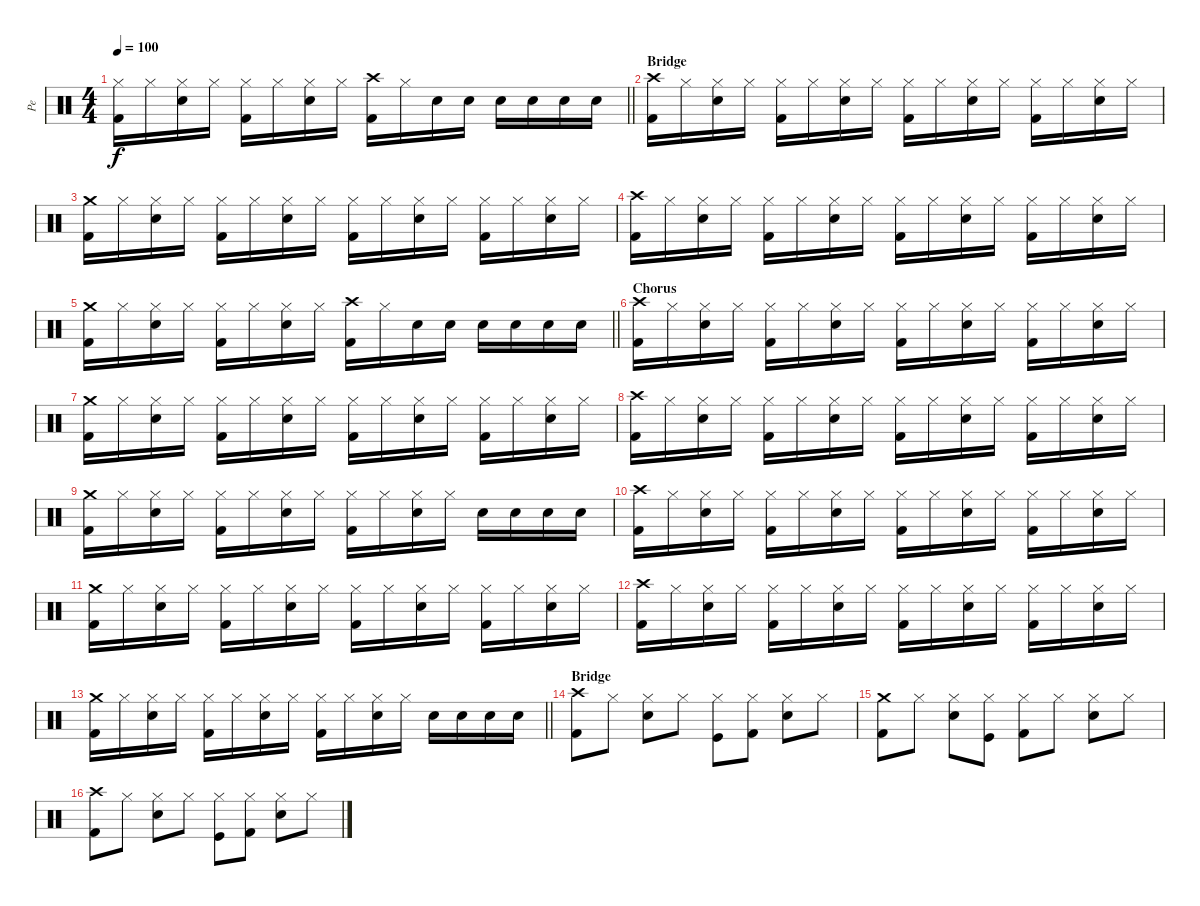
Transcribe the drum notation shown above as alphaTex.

\track ("Pe" "Pe") {instrument percussion}
\staff {score}
\articulation defaults
\ts (4 4)
\tempo 100
\clef neutral
\barLineRight lightlight
\ks c
("Kick (hit) 2" "Hi-Hat (closed)").16{dy f} "Hi-Hat (closed)".16 ("Electric Snare (hit)" "Hi-Hat (closed)").16 "Hi-Hat (closed)".16 ("Kick (hit) 2" "Hi-Hat (closed)").16 "Hi-Hat (closed)".16 ("Electric Snare (hit)" "Hi-Hat (closed)").16 "Hi-Hat (closed)".16 ("Kick (hit) 2" "Crash high (hit)").16 "Hi-Hat (closed)".16 "Electric Snare (hit)".16 "Electric Snare (hit)".16 "Electric Snare (hit)".16 "Electric Snare (hit)".16 "Electric Snare (hit)".16 "Electric Snare (hit)".16 |
\section ("" "Bridge")
("Kick (hit) 2" "Crash high (hit)").16 "Hi-Hat (closed)".16 ("Electric Snare (hit)" "Hi-Hat (closed)").16 "Hi-Hat (closed)".16 ("Kick (hit) 2" "Hi-Hat (closed)").16 "Hi-Hat (closed)".16 ("Electric Snare (hit)" "Hi-Hat (closed)").16 "Hi-Hat (closed)".16 ("Kick (hit) 2" "Hi-Hat (closed)").16 "Hi-Hat (closed)".16 ("Electric Snare (hit)" "Hi-Hat (closed)").16 "Hi-Hat (closed)".16 ("Kick (hit) 2" "Hi-Hat (closed)").16 "Hi-Hat (closed)".16 ("Electric Snare (hit)" "Hi-Hat (closed)").16 "Hi-Hat (closed)".16 |
("Kick (hit) 2" "Crash medium (hit)").16 "Hi-Hat (closed)".16 ("Electric Snare (hit)" "Hi-Hat (closed)").16 "Hi-Hat (closed)".16 ("Kick (hit) 2" "Hi-Hat (closed)").16 "Hi-Hat (closed)".16 ("Electric Snare (hit)" "Hi-Hat (closed)").16 "Hi-Hat (closed)".16 ("Kick (hit) 2" "Hi-Hat (closed)").16 "Hi-Hat (closed)".16 ("Electric Snare (hit)" "Hi-Hat (closed)").16 "Hi-Hat (closed)".16 ("Kick (hit) 2" "Hi-Hat (closed)").16 "Hi-Hat (closed)".16 ("Electric Snare (hit)" "Hi-Hat (closed)").16 "Hi-Hat (closed)".16 |
("Kick (hit) 2" "Crash high (hit)").16 "Hi-Hat (closed)".16 ("Electric Snare (hit)" "Hi-Hat (closed)").16 "Hi-Hat (closed)".16 ("Kick (hit) 2" "Hi-Hat (closed)").16 "Hi-Hat (closed)".16 ("Electric Snare (hit)" "Hi-Hat (closed)").16 "Hi-Hat (closed)".16 ("Kick (hit) 2" "Hi-Hat (closed)").16 "Hi-Hat (closed)".16 ("Electric Snare (hit)" "Hi-Hat (closed)").16 "Hi-Hat (closed)".16 ("Kick (hit) 2" "Hi-Hat (closed)").16 "Hi-Hat (closed)".16 ("Electric Snare (hit)" "Hi-Hat (closed)").16 "Hi-Hat (closed)".16 |
\barLineRight lightlight
("Kick (hit) 2" "Crash medium (hit)").16 "Hi-Hat (closed)".16 ("Electric Snare (hit)" "Hi-Hat (closed)").16 "Hi-Hat (closed)".16 ("Kick (hit) 2" "Hi-Hat (closed)").16 "Hi-Hat (closed)".16 ("Electric Snare (hit)" "Hi-Hat (closed)").16 "Hi-Hat (closed)".16 ("Kick (hit) 2" "Crash high (hit)").16 "Hi-Hat (closed)".16 "Electric Snare (hit)".16 "Electric Snare (hit)".16 "Electric Snare (hit)".16 "Electric Snare (hit)".16 "Electric Snare (hit)".16 "Electric Snare (hit)".16 |
\section ("" "Chorus")
("Kick (hit) 2" "Crash high (hit)").16 "Hi-Hat (closed)".16 ("Electric Snare (hit)" "Hi-Hat (closed)").16 "Hi-Hat (closed)".16 ("Kick (hit) 2" "Hi-Hat (closed)").16 "Hi-Hat (closed)".16 ("Electric Snare (hit)" "Hi-Hat (closed)").16 "Hi-Hat (closed)".16 ("Kick (hit) 2" "Hi-Hat (closed)").16 "Hi-Hat (closed)".16 ("Electric Snare (hit)" "Hi-Hat (closed)").16 "Hi-Hat (closed)".16 ("Kick (hit) 2" "Hi-Hat (closed)").16 "Hi-Hat (closed)".16 ("Electric Snare (hit)" "Hi-Hat (closed)").16 "Hi-Hat (closed)".16 |
("Kick (hit) 2" "Crash medium (hit)").16 "Hi-Hat (closed)".16 ("Electric Snare (hit)" "Hi-Hat (closed)").16 "Hi-Hat (closed)".16 ("Kick (hit) 2" "Hi-Hat (closed)").16 "Hi-Hat (closed)".16 ("Electric Snare (hit)" "Hi-Hat (closed)").16 "Hi-Hat (closed)".16 ("Kick (hit) 2" "Hi-Hat (closed)").16 "Hi-Hat (closed)".16 ("Electric Snare (hit)" "Hi-Hat (closed)").16 "Hi-Hat (closed)".16 ("Kick (hit) 2" "Hi-Hat (closed)").16 "Hi-Hat (closed)".16 ("Electric Snare (hit)" "Hi-Hat (closed)").16 "Hi-Hat (closed)".16 |
("Kick (hit) 2" "Crash high (hit)").16 "Hi-Hat (closed)".16 ("Electric Snare (hit)" "Hi-Hat (closed)").16 "Hi-Hat (closed)".16 ("Kick (hit) 2" "Hi-Hat (closed)").16 "Hi-Hat (closed)".16 ("Electric Snare (hit)" "Hi-Hat (closed)").16 "Hi-Hat (closed)".16 ("Kick (hit) 2" "Hi-Hat (closed)").16 "Hi-Hat (closed)".16 ("Electric Snare (hit)" "Hi-Hat (closed)").16 "Hi-Hat (closed)".16 ("Kick (hit) 2" "Hi-Hat (closed)").16 "Hi-Hat (closed)".16 ("Electric Snare (hit)" "Hi-Hat (closed)").16 "Hi-Hat (closed)".16 |
("Kick (hit) 2" "Crash medium (hit)").16 "Hi-Hat (closed)".16 ("Electric Snare (hit)" "Hi-Hat (closed)").16 "Hi-Hat (closed)".16 ("Kick (hit) 2" "Hi-Hat (closed)").16 "Hi-Hat (closed)".16 ("Electric Snare (hit)" "Hi-Hat (closed)").16 "Hi-Hat (closed)".16 ("Kick (hit) 2" "Hi-Hat (closed)").16 "Hi-Hat (closed)".16 ("Electric Snare (hit)" "Hi-Hat (closed)").16 "Hi-Hat (closed)".16 "Electric Snare (hit)".16 "Electric Snare (hit)".16 "Electric Snare (hit)".16 "Electric Snare (hit)".16 |
("Kick (hit) 2" "Crash high (hit)").16 "Hi-Hat (closed)".16 ("Electric Snare (hit)" "Hi-Hat (closed)").16 "Hi-Hat (closed)".16 ("Kick (hit) 2" "Hi-Hat (closed)").16 "Hi-Hat (closed)".16 ("Electric Snare (hit)" "Hi-Hat (closed)").16 "Hi-Hat (closed)".16 ("Kick (hit) 2" "Hi-Hat (closed)").16 "Hi-Hat (closed)".16 ("Electric Snare (hit)" "Hi-Hat (closed)").16 "Hi-Hat (closed)".16 ("Kick (hit) 2" "Hi-Hat (closed)").16 "Hi-Hat (closed)".16 ("Electric Snare (hit)" "Hi-Hat (closed)").16 "Hi-Hat (closed)".16 |
("Kick (hit) 2" "Crash medium (hit)").16 "Hi-Hat (closed)".16 ("Electric Snare (hit)" "Hi-Hat (closed)").16 "Hi-Hat (closed)".16 ("Kick (hit) 2" "Hi-Hat (closed)").16 "Hi-Hat (closed)".16 ("Electric Snare (hit)" "Hi-Hat (closed)").16 "Hi-Hat (closed)".16 ("Kick (hit) 2" "Hi-Hat (closed)").16 "Hi-Hat (closed)".16 ("Electric Snare (hit)" "Hi-Hat (closed)").16 "Hi-Hat (closed)".16 ("Kick (hit) 2" "Hi-Hat (closed)").16 "Hi-Hat (closed)".16 ("Electric Snare (hit)" "Hi-Hat (closed)").16 "Hi-Hat (closed)".16 |
("Kick (hit) 2" "Crash high (hit)").16 "Hi-Hat (closed)".16 ("Electric Snare (hit)" "Hi-Hat (closed)").16 "Hi-Hat (closed)".16 ("Kick (hit) 2" "Hi-Hat (closed)").16 "Hi-Hat (closed)".16 ("Electric Snare (hit)" "Hi-Hat (closed)").16 "Hi-Hat (closed)".16 ("Kick (hit) 2" "Hi-Hat (closed)").16 "Hi-Hat (closed)".16 ("Electric Snare (hit)" "Hi-Hat (closed)").16 "Hi-Hat (closed)".16 ("Kick (hit) 2" "Hi-Hat (closed)").16 "Hi-Hat (closed)".16 ("Electric Snare (hit)" "Hi-Hat (closed)").16 "Hi-Hat (closed)".16 |
\barLineRight lightlight
("Kick (hit) 2" "Crash medium (hit)").16 "Hi-Hat (closed)".16 ("Electric Snare (hit)" "Hi-Hat (closed)").16 "Hi-Hat (closed)".16 ("Kick (hit) 2" "Hi-Hat (closed)").16 "Hi-Hat (closed)".16 ("Electric Snare (hit)" "Hi-Hat (closed)").16 "Hi-Hat (closed)".16 ("Kick (hit) 2" "Hi-Hat (closed)").16 "Hi-Hat (closed)".16 ("Electric Snare (hit)" "Hi-Hat (closed)").16 "Hi-Hat (closed)".16 "Electric Snare (hit)".16 "Electric Snare (hit)".16 "Electric Snare (hit)".16 "Electric Snare (hit)".16 |
\section ("" "Bridge")
("Kick (hit) 2" "Crash high (hit)").8 "Hi-Hat (closed)".8 ("Electric Snare (hit)" "Hi-Hat (closed)").8 "Hi-Hat (closed)".8 ("Kick (hit)" "Hi-Hat (closed)").8 ("Kick (hit) 2" "Hi-Hat (closed)").8 ("Electric Snare (hit)" "Hi-Hat (closed)").8 "Hi-Hat (closed)".8 |
("Kick (hit) 2" "Crash medium (hit)").8 "Hi-Hat (closed)".8 ("Electric Snare (hit)" "Hi-Hat (closed)").8 ("Kick (hit)" "Hi-Hat (closed)").8 ("Kick (hit) 2" "Hi-Hat (closed)").8 "Hi-Hat (closed)".8 ("Electric Snare (hit)" "Hi-Hat (closed)").8 "Hi-Hat (closed)".8 |
("Kick (hit) 2" "Crash high (hit)").8 "Hi-Hat (closed)".8 ("Electric Snare (hit)" "Hi-Hat (closed)").8 "Hi-Hat (closed)".8 ("Kick (hit)" "Hi-Hat (closed)").8 ("Kick (hit) 2" "Hi-Hat (closed)").8 ("Electric Snare (hit)" "Hi-Hat (closed)").8 "Hi-Hat (closed)".8
